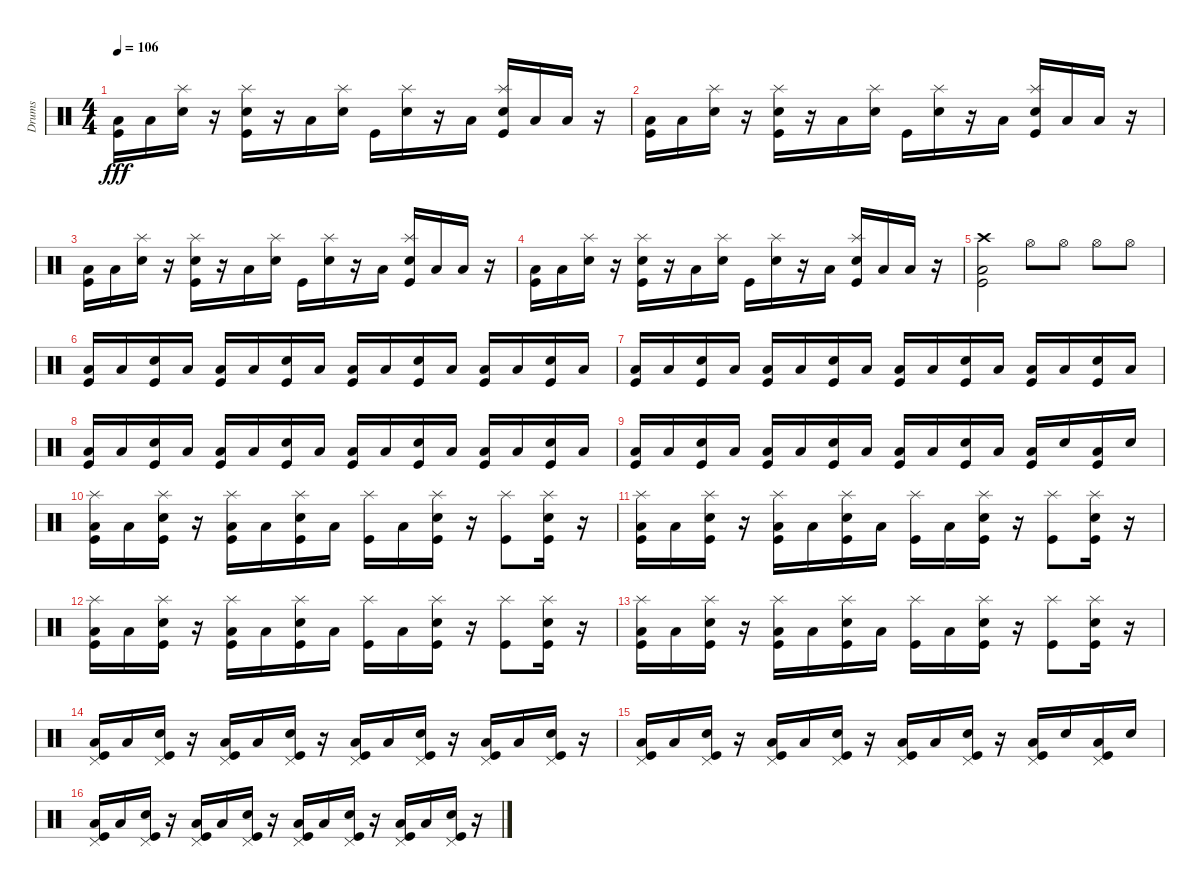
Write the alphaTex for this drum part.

\track ("Drums" "Drums") {instrument percussion}
\staff {score}
\articulation defaults
\ts (4 4)
\tempo 106
\clef neutral
\ks c
("Low Floor Tom (hit)" "Kick (hit)").16{dy fff} "Low Floor Tom (hit)".16 ("Splash (hit)" "Snare (hit) 2").16 r.16 ("Splash (hit)" "Snare (hit) 2" "Kick (hit)").16 r.16 "Low Floor Tom (hit)".16 ("Splash (hit)" "Snare (hit) 2").16 "Kick (hit)".16 ("Splash (hit)" "Snare (hit) 2").16 r.16 "Low Floor Tom (hit)".16 ("Splash (hit)" "Snare (hit) 2" "Kick (hit)").16 "Low Floor Tom (hit)".16 "Low Floor Tom (hit)".16 r.16 |
("Low Floor Tom (hit)" "Kick (hit)").16 "Low Floor Tom (hit)".16 ("Splash (hit)" "Snare (hit) 2").16 r.16 ("Splash (hit)" "Snare (hit) 2" "Kick (hit)").16 r.16 "Low Floor Tom (hit)".16 ("Splash (hit)" "Snare (hit) 2").16 "Kick (hit)".16 ("Splash (hit)" "Snare (hit) 2").16 r.16 "Low Floor Tom (hit)".16 ("Splash (hit)" "Snare (hit) 2" "Kick (hit)").16 "Low Floor Tom (hit)".16 "Low Floor Tom (hit)".16 r.16 |
("Low Floor Tom (hit)" "Kick (hit)").16 "Low Floor Tom (hit)".16 ("Splash (hit)" "Snare (hit) 2").16 r.16 ("Splash (hit)" "Snare (hit) 2" "Kick (hit)").16 r.16 "Low Floor Tom (hit)".16 ("Splash (hit)" "Snare (hit) 2").16 "Kick (hit)".16 ("Splash (hit)" "Snare (hit) 2").16 r.16 "Low Floor Tom (hit)".16 ("Splash (hit)" "Snare (hit) 2" "Kick (hit)").16 "Low Floor Tom (hit)".16 "Low Floor Tom (hit)".16 r.16 |
("Low Floor Tom (hit)" "Kick (hit)").16 "Low Floor Tom (hit)".16 ("Splash (hit)" "Snare (hit) 2").16 r.16 ("Splash (hit)" "Snare (hit) 2" "Kick (hit)").16 r.16 "Low Floor Tom (hit)".16 ("Splash (hit)" "Snare (hit) 2").16 "Kick (hit)".16 ("Splash (hit)" "Snare (hit) 2").16 r.16 "Low Floor Tom (hit)".16 ("Splash (hit)" "Snare (hit) 2" "Kick (hit)").16 "Low Floor Tom (hit)".16 "Low Floor Tom (hit)".16 r.16 |
("Crash high (hit)" "Low Floor Tom (hit)" "Kick (hit)").2 "Hi-Hat (open)".8 "Hi-Hat (open)".8 "Hi-Hat (open)".8 "Hi-Hat (open)".8 |
("Low Floor Tom (hit)" "Kick (hit)").16 "Low Floor Tom (hit)".16 ("Snare (hit) 2" "Kick (hit)").16 "Low Floor Tom (hit)".16 ("Low Floor Tom (hit)" "Kick (hit)").16 "Low Floor Tom (hit)".16 ("Snare (hit) 2" "Kick (hit)").16 "Low Floor Tom (hit)".16 ("Low Floor Tom (hit)" "Kick (hit)").16 "Low Floor Tom (hit)".16 ("Snare (hit) 2" "Kick (hit)").16 "Low Floor Tom (hit)".16 ("Low Floor Tom (hit)" "Kick (hit)").16 "Low Floor Tom (hit)".16 ("Snare (hit) 2" "Kick (hit)").16 "Low Floor Tom (hit)".16 |
("Low Floor Tom (hit)" "Kick (hit)").16 "Low Floor Tom (hit)".16 ("Snare (hit) 2" "Kick (hit)").16 "Low Floor Tom (hit)".16 ("Low Floor Tom (hit)" "Kick (hit)").16 "Low Floor Tom (hit)".16 ("Snare (hit) 2" "Kick (hit)").16 "Low Floor Tom (hit)".16 ("Low Floor Tom (hit)" "Kick (hit)").16 "Low Floor Tom (hit)".16 ("Snare (hit) 2" "Kick (hit)").16 "Low Floor Tom (hit)".16 ("Low Floor Tom (hit)" "Kick (hit)").16 "Low Floor Tom (hit)".16 ("Snare (hit) 2" "Kick (hit)").16 "Low Floor Tom (hit)".16 |
("Low Floor Tom (hit)" "Kick (hit)").16 "Low Floor Tom (hit)".16 ("Snare (hit) 2" "Kick (hit)").16 "Low Floor Tom (hit)".16 ("Low Floor Tom (hit)" "Kick (hit)").16 "Low Floor Tom (hit)".16 ("Snare (hit) 2" "Kick (hit)").16 "Low Floor Tom (hit)".16 ("Low Floor Tom (hit)" "Kick (hit)").16 "Low Floor Tom (hit)".16 ("Snare (hit) 2" "Kick (hit)").16 "Low Floor Tom (hit)".16 ("Low Floor Tom (hit)" "Kick (hit)").16 "Low Floor Tom (hit)".16 ("Snare (hit) 2" "Kick (hit)").16 "Low Floor Tom (hit)".16 |
("Low Floor Tom (hit)" "Kick (hit)").16 "Low Floor Tom (hit)".16 ("Snare (hit) 2" "Kick (hit)").16 "Low Floor Tom (hit)".16 ("Low Floor Tom (hit)" "Kick (hit)").16 "Low Floor Tom (hit)".16 ("Snare (hit) 2" "Kick (hit)").16 "Low Floor Tom (hit)".16 ("Low Floor Tom (hit)" "Kick (hit)").16 "Low Floor Tom (hit)".16 ("Snare (hit) 2" "Kick (hit)").16 "Low Floor Tom (hit)".16 ("Low Floor Tom (hit)" "Kick (hit)").16 "Snare (hit) 2".16 ("Low Floor Tom (hit)" "Kick (hit)").16 "Snare (hit) 2".16 |
("Splash (hit)" "Low Floor Tom (hit)" "Kick (hit)").16 "Low Floor Tom (hit)".16 ("Splash (hit)" "Snare (hit) 2" "Kick (hit)").16 r.16 ("Splash (hit)" "Low Floor Tom (hit)" "Kick (hit)").16 "Low Floor Tom (hit)".16 ("Splash (hit)" "Snare (hit) 2" "Kick (hit)").16 "Low Floor Tom (hit)".16 ("Splash (hit)" "Kick (hit)").16 "Low Floor Tom (hit)".16 ("Splash (hit)" "Snare (hit) 2" "Kick (hit)").16 r.16 ("Splash (hit)" "Kick (hit)").8 ("Splash (hit)" "Snare (hit) 2" "Kick (hit)").16 r.16 |
("Splash (hit)" "Low Floor Tom (hit)" "Kick (hit)").16 "Low Floor Tom (hit)".16 ("Splash (hit)" "Snare (hit) 2" "Kick (hit)").16 r.16 ("Splash (hit)" "Low Floor Tom (hit)" "Kick (hit)").16 "Low Floor Tom (hit)".16 ("Splash (hit)" "Snare (hit) 2" "Kick (hit)").16 "Low Floor Tom (hit)".16 ("Splash (hit)" "Kick (hit)").16 "Low Floor Tom (hit)".16 ("Splash (hit)" "Snare (hit) 2" "Kick (hit)").16 r.16 ("Splash (hit)" "Kick (hit)").8 ("Splash (hit)" "Snare (hit) 2" "Kick (hit)").16 r.16 |
("Splash (hit)" "Low Floor Tom (hit)" "Kick (hit)").16 "Low Floor Tom (hit)".16 ("Splash (hit)" "Snare (hit) 2" "Kick (hit)").16 r.16 ("Splash (hit)" "Low Floor Tom (hit)" "Kick (hit)").16 "Low Floor Tom (hit)".16 ("Splash (hit)" "Snare (hit) 2" "Kick (hit)").16 "Low Floor Tom (hit)".16 ("Splash (hit)" "Kick (hit)").16 "Low Floor Tom (hit)".16 ("Splash (hit)" "Snare (hit) 2" "Kick (hit)").16 r.16 ("Splash (hit)" "Kick (hit)").8 ("Splash (hit)" "Snare (hit) 2" "Kick (hit)").16 r.16 |
("Splash (hit)" "Low Floor Tom (hit)" "Kick (hit)").16 "Low Floor Tom (hit)".16 ("Splash (hit)" "Snare (hit) 2" "Kick (hit)").16 r.16 ("Splash (hit)" "Low Floor Tom (hit)" "Kick (hit)").16 "Low Floor Tom (hit)".16 ("Splash (hit)" "Snare (hit) 2" "Kick (hit)").16 "Low Floor Tom (hit)".16 ("Splash (hit)" "Kick (hit)").16 "Low Floor Tom (hit)".16 ("Splash (hit)" "Snare (hit) 2" "Kick (hit)").16 r.16 ("Splash (hit)" "Kick (hit)").8 ("Splash (hit)" "Snare (hit) 2" "Kick (hit)").16 r.16 |
("Pedal Hi-Hat (hit)" "Low Floor Tom (hit)" "Kick (hit)").16 "Low Floor Tom (hit)".16 ("Pedal Hi-Hat (hit)" "Snare (hit) 2" "Kick (hit)").16 r.16 ("Pedal Hi-Hat (hit)" "Low Floor Tom (hit)" "Kick (hit)").16 "Low Floor Tom (hit)".16 ("Pedal Hi-Hat (hit)" "Snare (hit) 2" "Kick (hit)").16 r.16 ("Pedal Hi-Hat (hit)" "Low Floor Tom (hit)" "Kick (hit)").16 "Low Floor Tom (hit)".16 ("Pedal Hi-Hat (hit)" "Snare (hit) 2" "Kick (hit)").16 r.16 ("Pedal Hi-Hat (hit)" "Low Floor Tom (hit)" "Kick (hit)").16 "Low Floor Tom (hit)".16 ("Pedal Hi-Hat (hit)" "Snare (hit) 2" "Kick (hit)").16 r.16 |
("Pedal Hi-Hat (hit)" "Low Floor Tom (hit)" "Kick (hit)").16 "Low Floor Tom (hit)".16 ("Pedal Hi-Hat (hit)" "Snare (hit) 2" "Kick (hit)").16 r.16 ("Pedal Hi-Hat (hit)" "Low Floor Tom (hit)" "Kick (hit)").16 "Low Floor Tom (hit)".16 ("Pedal Hi-Hat (hit)" "Snare (hit) 2" "Kick (hit)").16 r.16 ("Pedal Hi-Hat (hit)" "Low Floor Tom (hit)" "Kick (hit)").16 "Low Floor Tom (hit)".16 ("Pedal Hi-Hat (hit)" "Snare (hit) 2" "Kick (hit)").16 r.16 ("Pedal Hi-Hat (hit)" "Low Floor Tom (hit)" "Kick (hit)").16 "Snare (hit) 2".16 ("Pedal Hi-Hat (hit)" "Low Floor Tom (hit)" "Kick (hit)").16 "Snare (hit) 2".16 |
("Pedal Hi-Hat (hit)" "Low Floor Tom (hit)" "Kick (hit)").16 "Low Floor Tom (hit)".16 ("Pedal Hi-Hat (hit)" "Snare (hit) 2" "Kick (hit)").16 r.16 ("Pedal Hi-Hat (hit)" "Low Floor Tom (hit)" "Kick (hit)").16 "Low Floor Tom (hit)".16 ("Pedal Hi-Hat (hit)" "Snare (hit) 2" "Kick (hit)").16 r.16 ("Pedal Hi-Hat (hit)" "Low Floor Tom (hit)" "Kick (hit)").16 "Low Floor Tom (hit)".16 ("Pedal Hi-Hat (hit)" "Snare (hit) 2" "Kick (hit)").16 r.16 ("Pedal Hi-Hat (hit)" "Low Floor Tom (hit)" "Kick (hit)").16 "Low Floor Tom (hit)".16 ("Pedal Hi-Hat (hit)" "Snare (hit) 2" "Kick (hit)").16 r.16
